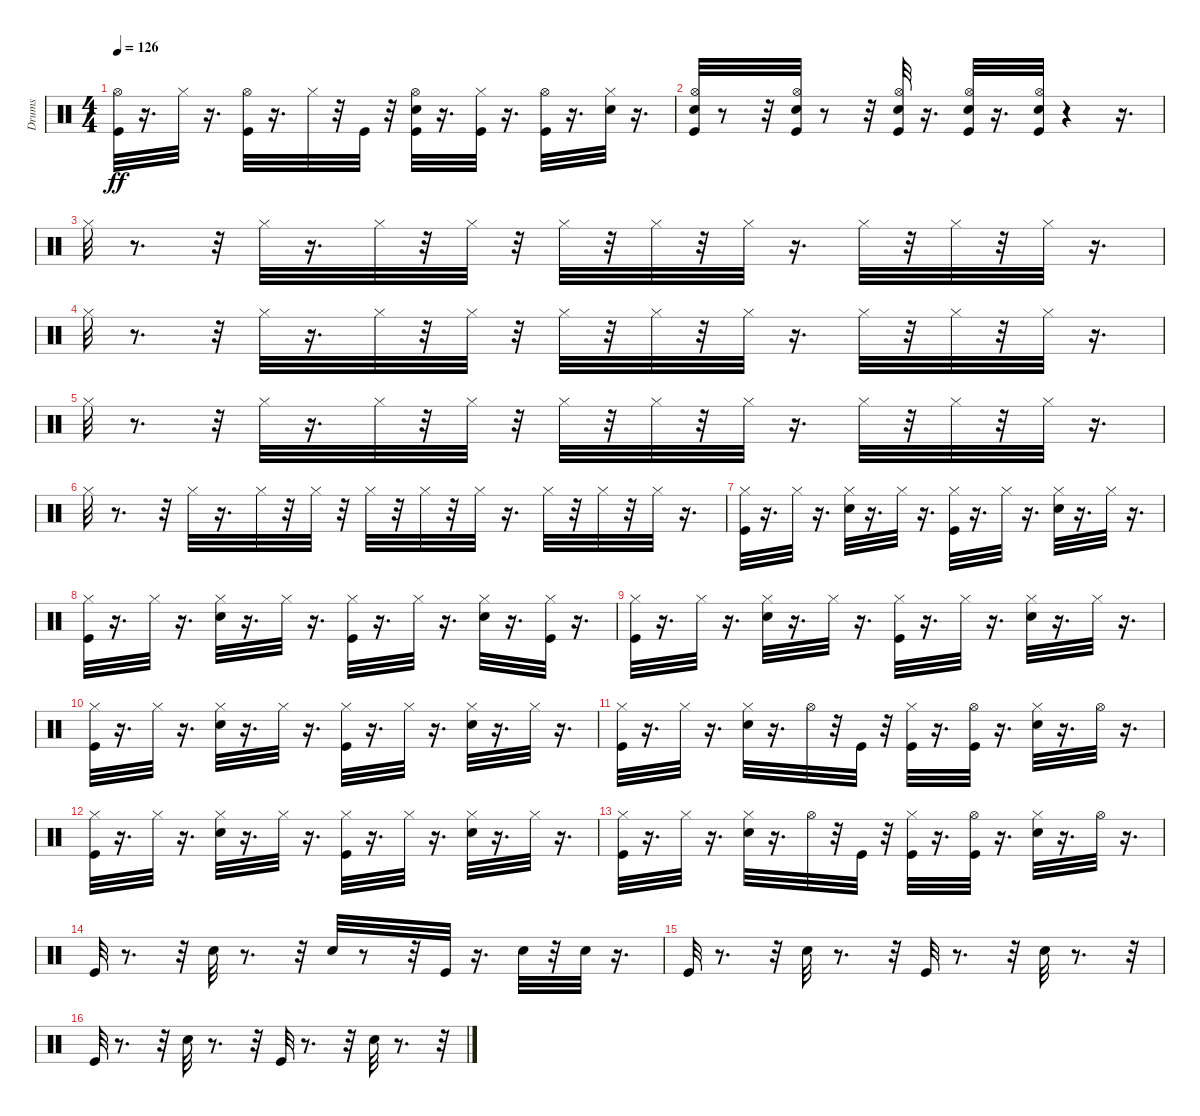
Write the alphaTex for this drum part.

\track ("Drums" "Drums") {instrument percussion}
\staff {score}
\articulation defaults
\ts (4 4)
\tempo 126
\clef neutral
\ks c
("Kick (hit)" "Hi-Hat (open)").32{dy ff} r.16{d} "Hi-Hat (closed)".32 r.16{d} ("Kick (hit)" "Hi-Hat (open)").32 r.16{d} "Hi-Hat (closed)".32 r.32 "Kick (hit)".32 r.32 ("Kick (hit)" "Snare (hit) 2" "Hi-Hat (open)").32 r.16{d} ("Kick (hit)" "Hi-Hat (closed)").32 r.16{d} ("Kick (hit)" "Hi-Hat (open)").32 r.16{d} ("Snare (hit) 2" "Hi-Hat (closed)").32 r.16{d} |
("Kick (hit)" "Snare (hit) 2" "Hi-Hat (open)").32 r.8 r.32 ("Kick (hit)" "Snare (hit) 2" "Hi-Hat (open)").32 r.8 r.32 ("Kick (hit)" "Snare (hit) 2" "Hi-Hat (open)").32 r.16{d} ("Kick (hit)" "Snare (hit) 2" "Hi-Hat (open)").32 r.16{d} ("Kick (hit)" "Snare (hit) 2" "Hi-Hat (open)").32 r.4 r.16{d} |
"Hi-Hat (closed)".32 r.8{d} r.32 "Hi-Hat (closed)".32 r.16{d} "Hi-Hat (closed)".32 r.32 "Hi-Hat (closed)".32 r.32 "Hi-Hat (closed)".32 r.32 "Hi-Hat (closed)".32 r.32 "Hi-Hat (closed)".32 r.16{d} "Hi-Hat (closed)".32 r.32 "Hi-Hat (closed)".32 r.32 "Hi-Hat (closed)".32 r.16{d} |
"Hi-Hat (closed)".32 r.8{d} r.32 "Hi-Hat (closed)".32 r.16{d} "Hi-Hat (closed)".32 r.32 "Hi-Hat (closed)".32 r.32 "Hi-Hat (closed)".32 r.32 "Hi-Hat (closed)".32 r.32 "Hi-Hat (closed)".32 r.16{d} "Hi-Hat (closed)".32 r.32 "Hi-Hat (closed)".32 r.32 "Hi-Hat (closed)".32 r.16{d} |
"Hi-Hat (closed)".32 r.8{d} r.32 "Hi-Hat (closed)".32 r.16{d} "Hi-Hat (closed)".32 r.32 "Hi-Hat (closed)".32 r.32 "Hi-Hat (closed)".32 r.32 "Hi-Hat (closed)".32 r.32 "Hi-Hat (closed)".32 r.16{d} "Hi-Hat (closed)".32 r.32 "Hi-Hat (closed)".32 r.32 "Hi-Hat (closed)".32 r.16{d} |
"Hi-Hat (closed)".32 r.8{d} r.32 "Hi-Hat (closed)".32 r.16{d} "Hi-Hat (closed)".32 r.32 "Hi-Hat (closed)".32 r.32 "Hi-Hat (closed)".32 r.32 "Hi-Hat (closed)".32 r.32 "Hi-Hat (closed)".32 r.16{d} "Hi-Hat (closed)".32 r.32 "Hi-Hat (closed)".32 r.32 "Hi-Hat (closed)".32 r.16{d} |
("Kick (hit)" "Hi-Hat (closed)").32 r.16{d} "Hi-Hat (closed)".32 r.16{d} ("Snare (hit) 2" "Hi-Hat (closed)").32 r.16{d} "Hi-Hat (closed)".32 r.16{d} ("Kick (hit)" "Hi-Hat (closed)").32 r.16{d} "Hi-Hat (closed)".32 r.16{d} ("Snare (hit) 2" "Hi-Hat (closed)").32 r.16{d} "Hi-Hat (closed)".32 r.16{d} |
("Kick (hit)" "Hi-Hat (closed)").32 r.16{d} "Hi-Hat (closed)".32 r.16{d} ("Snare (hit) 2" "Hi-Hat (closed)").32 r.16{d} "Hi-Hat (closed)".32 r.16{d} ("Kick (hit)" "Hi-Hat (closed)").32 r.16{d} "Hi-Hat (closed)".32 r.16{d} ("Snare (hit) 2" "Hi-Hat (closed)").32 r.16{d} ("Kick (hit)" "Hi-Hat (closed)").32 r.16{d} |
("Kick (hit)" "Hi-Hat (closed)").32 r.16{d} "Hi-Hat (closed)".32 r.16{d} ("Snare (hit) 2" "Hi-Hat (closed)").32 r.16{d} "Hi-Hat (closed)".32 r.16{d} ("Kick (hit)" "Hi-Hat (closed)").32 r.16{d} "Hi-Hat (closed)".32 r.16{d} ("Snare (hit) 2" "Hi-Hat (closed)").32 r.16{d} "Hi-Hat (closed)".32 r.16{d} |
("Kick (hit)" "Hi-Hat (closed)").32 r.16{d} "Hi-Hat (closed)".32 r.16{d} ("Snare (hit) 2" "Hi-Hat (closed)").32 r.16{d} "Hi-Hat (closed)".32 r.16{d} ("Kick (hit)" "Hi-Hat (closed)").32 r.16{d} "Hi-Hat (closed)".32 r.16{d} ("Snare (hit) 2" "Hi-Hat (closed)").32 r.16{d} "Hi-Hat (closed)".32 r.16{d} |
("Kick (hit)" "Hi-Hat (closed)").32 r.16{d} "Hi-Hat (closed)".32 r.16{d} ("Snare (hit) 2" "Hi-Hat (closed)").32 r.16{d} "Hi-Hat (open)".32 r.32 "Kick (hit)".32 r.32 ("Kick (hit)" "Hi-Hat (closed)").32 r.16{d} ("Kick (hit)" "Hi-Hat (open)").32 r.16{d} ("Snare (hit) 2" "Hi-Hat (closed)").32 r.16{d} "Hi-Hat (open)".32 r.16{d} |
("Kick (hit)" "Hi-Hat (closed)").32 r.16{d} "Hi-Hat (closed)".32 r.16{d} ("Snare (hit) 2" "Hi-Hat (closed)").32 r.16{d} "Hi-Hat (closed)".32 r.16{d} ("Kick (hit)" "Hi-Hat (closed)").32 r.16{d} "Hi-Hat (closed)".32 r.16{d} ("Snare (hit) 2" "Hi-Hat (closed)").32 r.16{d} "Hi-Hat (closed)".32 r.16{d} |
("Kick (hit)" "Hi-Hat (closed)").32 r.16{d} "Hi-Hat (closed)".32 r.16{d} ("Snare (hit) 2" "Hi-Hat (closed)").32 r.16{d} "Hi-Hat (open)".32 r.32 "Kick (hit)".32 r.32 ("Kick (hit)" "Hi-Hat (closed)").32 r.16{d} ("Kick (hit)" "Hi-Hat (open)").32 r.16{d} ("Snare (hit) 2" "Hi-Hat (closed)").32 r.16{d} "Hi-Hat (open)".32 r.16{d} |
"Kick (hit)".32 r.8{d} r.32 "Snare (hit) 2".32 r.8{d} r.32 "Snare (hit) 2".32 r.8 r.32 "Kick (hit)".32 r.16{d} "Snare (hit) 2".32 r.32 "Snare (hit) 2".32 r.16{d} |
"Kick (hit)".32 r.8{d} r.32 "Snare (hit) 2".32 r.8{d} r.32 "Kick (hit)".32 r.8{d} r.32 "Snare (hit) 2".32 r.8{d} r.32 |
"Kick (hit)".32 r.8{d} r.32 "Snare (hit) 2".32 r.8{d} r.32 "Kick (hit)".32 r.8{d} r.32 "Snare (hit) 2".32 r.8{d} r.32
